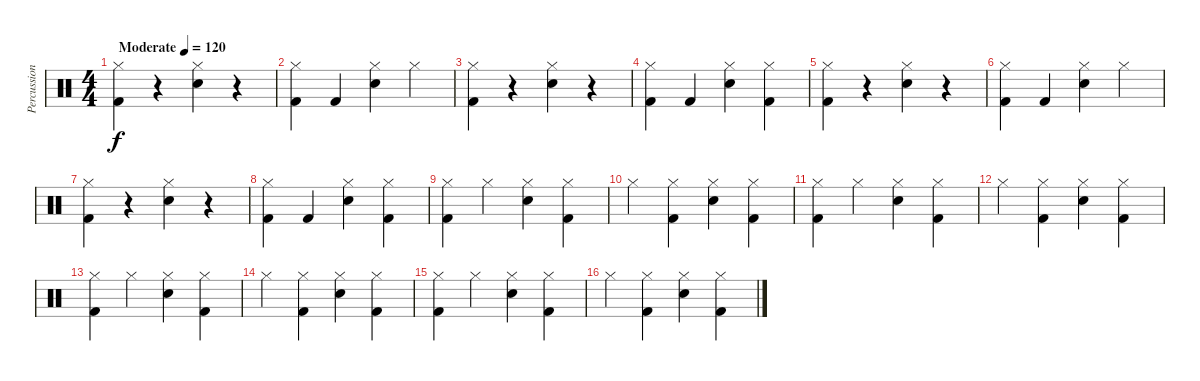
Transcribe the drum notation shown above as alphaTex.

\track ("Percussions" "Percussion") {instrument percussion}
\staff {score}
\articulation defaults
\ts (4 4)
\tempo (120 "Moderate")
\clef neutral
\ks c
("Hi-Hat (closed)" "Kick (hit) 2").4{dy f} r.4 ("Hi-Hat (closed)" "Snare (hit) 2").4 r.4 |
("Hi-Hat (closed)" "Kick (hit) 2").4 "Kick (hit) 2".4 ("Hi-Hat (closed)" "Snare (hit) 2").4 "Hi-Hat (closed)".4 |
("Hi-Hat (closed)" "Kick (hit) 2").4 r.4 ("Hi-Hat (closed)" "Snare (hit) 2").4 r.4 |
("Hi-Hat (closed)" "Kick (hit) 2").4 "Kick (hit) 2".4 ("Hi-Hat (closed)" "Snare (hit) 2").4 ("Hi-Hat (closed)" "Kick (hit) 2").4 |
("Hi-Hat (closed)" "Kick (hit) 2").4 r.4 ("Hi-Hat (closed)" "Snare (hit) 2").4 r.4 |
("Hi-Hat (closed)" "Kick (hit) 2").4 "Kick (hit) 2".4 ("Hi-Hat (closed)" "Snare (hit) 2").4 "Hi-Hat (closed)".4 |
("Hi-Hat (closed)" "Kick (hit) 2").4 r.4 ("Hi-Hat (closed)" "Snare (hit) 2").4 r.4 |
("Hi-Hat (closed)" "Kick (hit) 2").4 "Kick (hit) 2".4 ("Hi-Hat (closed)" "Snare (hit) 2").4 ("Hi-Hat (closed)" "Kick (hit) 2").4 |
("Hi-Hat (closed)" "Kick (hit) 2").4 "Hi-Hat (closed)".4 ("Hi-Hat (closed)" "Snare (hit) 2").4 ("Hi-Hat (closed)" "Kick (hit) 2").4 |
"Hi-Hat (closed)".4 ("Hi-Hat (closed)" "Kick (hit) 2").4 ("Hi-Hat (closed)" "Snare (hit) 2").4 ("Hi-Hat (closed)" "Kick (hit) 2").4 |
("Hi-Hat (closed)" "Kick (hit) 2").4 "Hi-Hat (closed)".4 ("Hi-Hat (closed)" "Snare (hit) 2").4 ("Hi-Hat (closed)" "Kick (hit) 2").4 |
"Hi-Hat (closed)".4 ("Hi-Hat (closed)" "Kick (hit) 2").4 ("Hi-Hat (closed)" "Snare (hit) 2").4 ("Hi-Hat (closed)" "Kick (hit) 2").4 |
("Hi-Hat (closed)" "Kick (hit) 2").4 "Hi-Hat (closed)".4 ("Hi-Hat (closed)" "Snare (hit) 2").4 ("Hi-Hat (closed)" "Kick (hit) 2").4 |
"Hi-Hat (closed)".4 ("Hi-Hat (closed)" "Kick (hit) 2").4 ("Hi-Hat (closed)" "Snare (hit) 2").4 ("Hi-Hat (closed)" "Kick (hit) 2").4 |
("Hi-Hat (closed)" "Kick (hit) 2").4 "Hi-Hat (closed)".4 ("Hi-Hat (closed)" "Snare (hit) 2").4 ("Hi-Hat (closed)" "Kick (hit) 2").4 |
"Hi-Hat (closed)".4 ("Hi-Hat (closed)" "Kick (hit) 2").4 ("Hi-Hat (closed)" "Snare (hit) 2").4 ("Hi-Hat (closed)" "Kick (hit) 2").4
